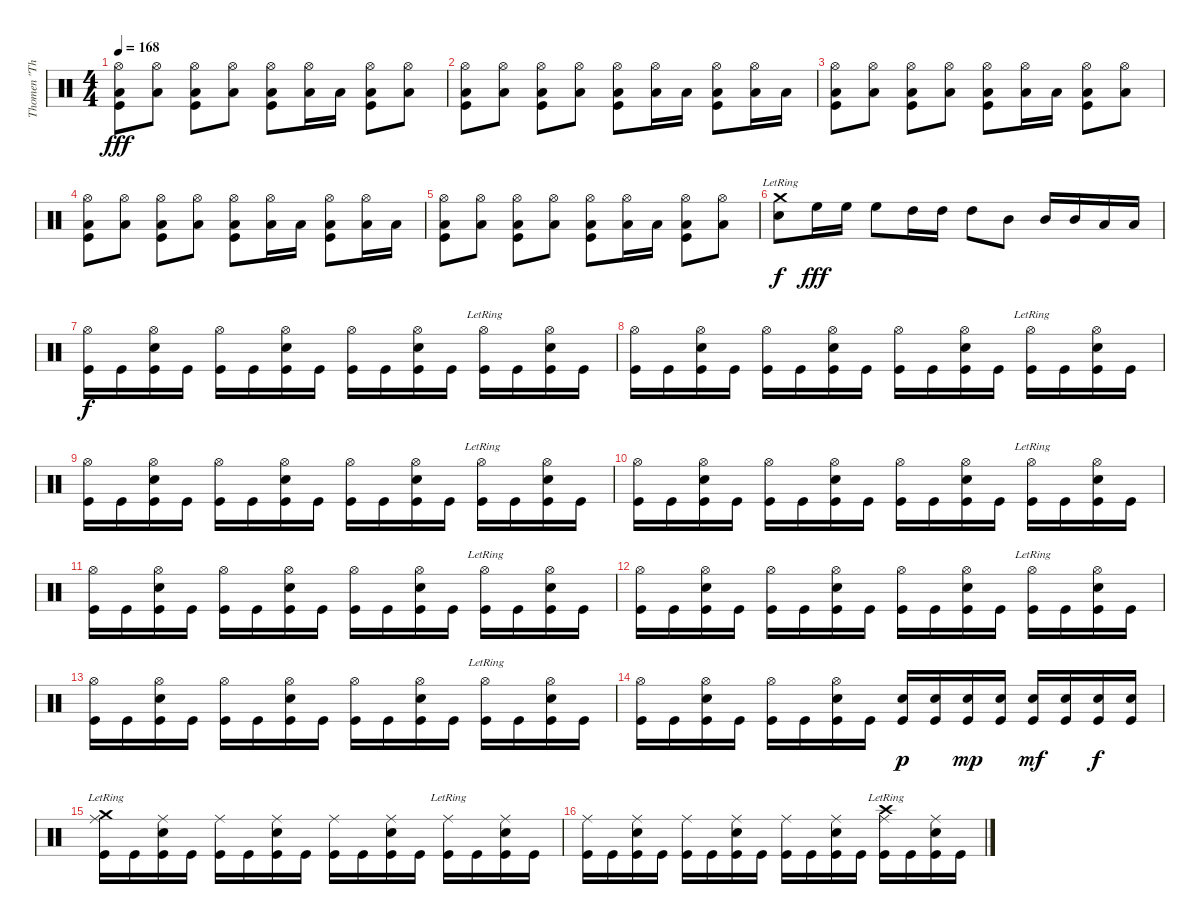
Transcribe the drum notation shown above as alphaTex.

\track ("Thomen \"The Omen\" Stauch" "Thomen \"Th") {instrument percussion}
\staff {score}
\articulation defaults
\ts (4 4)
\tempo 168
\clef neutral
\ks c
("Hi-Hat (open)" "Low Tom (hit)" "Kick (hit)").8{dy fff} ("Hi-Hat (open)" "Low Tom (hit)").8 ("Hi-Hat (open)" "Low Tom (hit)" "Kick (hit)").8 ("Hi-Hat (open)" "Low Tom (hit)").8 ("Hi-Hat (open)" "Low Tom (hit)" "Kick (hit)").8 ("Hi-Hat (open)" "Low Tom (hit)").16 "Low Tom (hit)".16 ("Hi-Hat (open)" "Low Tom (hit)" "Kick (hit)").8 ("Hi-Hat (open)" "Low Tom (hit)").8 |
("Hi-Hat (open)" "Low Tom (hit)" "Kick (hit)").8 ("Hi-Hat (open)" "Low Tom (hit)").8 ("Hi-Hat (open)" "Low Tom (hit)" "Kick (hit)").8 ("Hi-Hat (open)" "Low Tom (hit)").8 ("Hi-Hat (open)" "Low Tom (hit)" "Kick (hit)").8 ("Hi-Hat (open)" "Low Tom (hit)").16 "Low Tom (hit)".16 ("Hi-Hat (open)" "Low Tom (hit)" "Kick (hit)").8 ("Hi-Hat (open)" "Low Tom (hit)").16 "Low Tom (hit)".16 |
("Hi-Hat (open)" "Low Tom (hit)" "Kick (hit)").8 ("Hi-Hat (open)" "Low Tom (hit)").8 ("Hi-Hat (open)" "Low Tom (hit)" "Kick (hit)").8 ("Hi-Hat (open)" "Low Tom (hit)").8 ("Hi-Hat (open)" "Low Tom (hit)" "Kick (hit)").8 ("Hi-Hat (open)" "Low Tom (hit)").16 "Low Tom (hit)".16 ("Hi-Hat (open)" "Low Tom (hit)" "Kick (hit)").8 ("Hi-Hat (open)" "Low Tom (hit)").8 |
("Hi-Hat (open)" "Low Tom (hit)" "Kick (hit)").8 ("Hi-Hat (open)" "Low Tom (hit)").8 ("Hi-Hat (open)" "Low Tom (hit)" "Kick (hit)").8 ("Hi-Hat (open)" "Low Tom (hit)").8 ("Hi-Hat (open)" "Low Tom (hit)" "Kick (hit)").8 ("Hi-Hat (open)" "Low Tom (hit)").16 "Low Tom (hit)".16 ("Hi-Hat (open)" "Low Tom (hit)" "Kick (hit)").8 ("Hi-Hat (open)" "Low Tom (hit)").16 "Low Tom (hit)".16 |
("Hi-Hat (open)" "Low Tom (hit)" "Kick (hit)").8 ("Hi-Hat (open)" "Low Tom (hit)").8 ("Hi-Hat (open)" "Low Tom (hit)" "Kick (hit)").8 ("Hi-Hat (open)" "Low Tom (hit)").8 ("Hi-Hat (open)" "Low Tom (hit)" "Kick (hit)").8 ("Hi-Hat (open)" "Low Tom (hit)").16 "Low Tom (hit)".16 ("Hi-Hat (open)" "Low Tom (hit)" "Kick (hit)").8 ("Hi-Hat (open)" "Low Tom (hit)").8 |
("Crash medium (hit)"{lr} "Snare (hit) 2").8{dy f} "High Floor Tom (hit)".16{dy fff} "High Floor Tom (hit)".16 "High Floor Tom (hit)".8 "High Tom (hit)".16 "High Tom (hit)".16 "High Tom (hit)".8 "Mid Tom (hit)".8 "Mid Tom (hit)".16 "Mid Tom (hit)".16 "Low Tom (hit)".16 "Low Tom (hit)".16 |
("Hi-Hat (open)" "Kick (hit)").16{dy f} "Kick (hit)".16 ("Hi-Hat (open)" "Snare (hit) 2" "Kick (hit)").16 "Kick (hit)".16 ("Hi-Hat (open)" "Kick (hit)").16 "Kick (hit)".16 ("Hi-Hat (open)" "Snare (hit) 2" "Kick (hit)").16 "Kick (hit)".16 ("Hi-Hat (open)" "Kick (hit)").16 "Kick (hit)".16 ("Hi-Hat (open)" "Snare (hit) 2" "Kick (hit)").16 "Kick (hit)".16 ("Hi-Hat (open)"{lr} "Kick (hit)").16 "Kick (hit)".16 ("Hi-Hat (open)" "Snare (hit) 2" "Kick (hit)").16 "Kick (hit)".16 |
("Hi-Hat (open)" "Kick (hit)").16 "Kick (hit)".16 ("Hi-Hat (open)" "Snare (hit) 2" "Kick (hit)").16 "Kick (hit)".16 ("Hi-Hat (open)" "Kick (hit)").16 "Kick (hit)".16 ("Hi-Hat (open)" "Snare (hit) 2" "Kick (hit)").16 "Kick (hit)".16 ("Hi-Hat (open)" "Kick (hit)").16 "Kick (hit)".16 ("Hi-Hat (open)" "Snare (hit) 2" "Kick (hit)").16 "Kick (hit)".16 ("Hi-Hat (open)"{lr} "Kick (hit)").16 "Kick (hit)".16 ("Hi-Hat (open)" "Snare (hit) 2" "Kick (hit)").16 "Kick (hit)".16 |
("Hi-Hat (open)" "Kick (hit)").16 "Kick (hit)".16 ("Hi-Hat (open)" "Snare (hit) 2" "Kick (hit)").16 "Kick (hit)".16 ("Hi-Hat (open)" "Kick (hit)").16 "Kick (hit)".16 ("Hi-Hat (open)" "Snare (hit) 2" "Kick (hit)").16 "Kick (hit)".16 ("Hi-Hat (open)" "Kick (hit)").16 "Kick (hit)".16 ("Hi-Hat (open)" "Snare (hit) 2" "Kick (hit)").16 "Kick (hit)".16 ("Hi-Hat (open)"{lr} "Kick (hit)").16 "Kick (hit)".16 ("Hi-Hat (open)" "Snare (hit) 2" "Kick (hit)").16 "Kick (hit)".16 |
("Hi-Hat (open)" "Kick (hit)").16 "Kick (hit)".16 ("Hi-Hat (open)" "Snare (hit) 2" "Kick (hit)").16 "Kick (hit)".16 ("Hi-Hat (open)" "Kick (hit)").16 "Kick (hit)".16 ("Hi-Hat (open)" "Snare (hit) 2" "Kick (hit)").16 "Kick (hit)".16 ("Hi-Hat (open)" "Kick (hit)").16 "Kick (hit)".16 ("Hi-Hat (open)" "Snare (hit) 2" "Kick (hit)").16 "Kick (hit)".16 ("Hi-Hat (open)"{lr} "Kick (hit)").16 "Kick (hit)".16 ("Hi-Hat (open)" "Snare (hit) 2" "Kick (hit)").16 "Kick (hit)".16 |
("Hi-Hat (open)" "Kick (hit)").16 "Kick (hit)".16 ("Hi-Hat (open)" "Snare (hit) 2" "Kick (hit)").16 "Kick (hit)".16 ("Hi-Hat (open)" "Kick (hit)").16 "Kick (hit)".16 ("Hi-Hat (open)" "Snare (hit) 2" "Kick (hit)").16 "Kick (hit)".16 ("Hi-Hat (open)" "Kick (hit)").16 "Kick (hit)".16 ("Hi-Hat (open)" "Snare (hit) 2" "Kick (hit)").16 "Kick (hit)".16 ("Hi-Hat (open)"{lr} "Kick (hit)").16 "Kick (hit)".16 ("Hi-Hat (open)" "Snare (hit) 2" "Kick (hit)").16 "Kick (hit)".16 |
("Hi-Hat (open)" "Kick (hit)").16 "Kick (hit)".16 ("Hi-Hat (open)" "Snare (hit) 2" "Kick (hit)").16 "Kick (hit)".16 ("Hi-Hat (open)" "Kick (hit)").16 "Kick (hit)".16 ("Hi-Hat (open)" "Snare (hit) 2" "Kick (hit)").16 "Kick (hit)".16 ("Hi-Hat (open)" "Kick (hit)").16 "Kick (hit)".16 ("Hi-Hat (open)" "Snare (hit) 2" "Kick (hit)").16 "Kick (hit)".16 ("Hi-Hat (open)"{lr} "Kick (hit)").16 "Kick (hit)".16 ("Hi-Hat (open)" "Snare (hit) 2" "Kick (hit)").16 "Kick (hit)".16 |
("Hi-Hat (open)" "Kick (hit)").16 "Kick (hit)".16 ("Hi-Hat (open)" "Snare (hit) 2" "Kick (hit)").16 "Kick (hit)".16 ("Hi-Hat (open)" "Kick (hit)").16 "Kick (hit)".16 ("Hi-Hat (open)" "Snare (hit) 2" "Kick (hit)").16 "Kick (hit)".16 ("Hi-Hat (open)" "Kick (hit)").16 "Kick (hit)".16 ("Hi-Hat (open)" "Snare (hit) 2" "Kick (hit)").16 "Kick (hit)".16 ("Hi-Hat (open)"{lr} "Kick (hit)").16 "Kick (hit)".16 ("Hi-Hat (open)" "Snare (hit) 2" "Kick (hit)").16 "Kick (hit)".16 |
("Hi-Hat (open)" "Kick (hit)").16 "Kick (hit)".16 ("Hi-Hat (open)" "Snare (hit) 2" "Kick (hit)").16 "Kick (hit)".16 ("Hi-Hat (open)" "Kick (hit)").16 "Kick (hit)".16 ("Hi-Hat (open)" "Snare (hit) 2" "Kick (hit)").16 "Kick (hit)".16 ("Snare (hit) 2" "Kick (hit)").16{dy p} ("Snare (hit) 2" "Kick (hit)").16 ("Snare (hit) 2" "Kick (hit)").16{dy mp} ("Snare (hit) 2" "Kick (hit)").16 ("Snare (hit) 2" "Kick (hit)").16{dy mf} ("Snare (hit) 2" "Kick (hit)").16 ("Snare (hit) 2" "Kick (hit)").16{dy f} ("Snare (hit) 2" "Kick (hit)").16 |
("Ride (middle)" "Crash medium (hit)"{lr} "Kick (hit)").16 "Kick (hit)".16 ("Ride (middle)" "Snare (hit) 2" "Kick (hit)").16 "Kick (hit)".16 ("Ride (middle)" "Kick (hit)").16 "Kick (hit)".16 ("Ride (middle)" "Snare (hit) 2" "Kick (hit)").16 "Kick (hit)".16 ("Ride (middle)" "Kick (hit)").16 "Kick (hit)".16 ("Ride (middle)" "Snare (hit) 2" "Kick (hit)").16 "Kick (hit)".16 ("Ride (middle)"{lr} "Kick (hit)").16 "Kick (hit)".16 ("Ride (middle)" "Snare (hit) 2" "Kick (hit)").16 "Kick (hit)".16 |
("Ride (middle)" "Kick (hit)").16 "Kick (hit)".16 ("Ride (middle)" "Snare (hit) 2" "Kick (hit)").16 "Kick (hit)".16 ("Ride (middle)" "Kick (hit)").16 "Kick (hit)".16 ("Ride (middle)" "Snare (hit) 2" "Kick (hit)").16 "Kick (hit)".16 ("Ride (middle)" "Kick (hit)").16 "Kick (hit)".16 ("Ride (middle)" "Snare (hit) 2" "Kick (hit)").16 "Kick (hit)".16 ("Ride (middle)"{lr} "Crash high (hit)"{lr} "Kick (hit)").16 "Kick (hit)".16 ("Ride (middle)" "Snare (hit) 2" "Kick (hit)").16 "Kick (hit)".16
